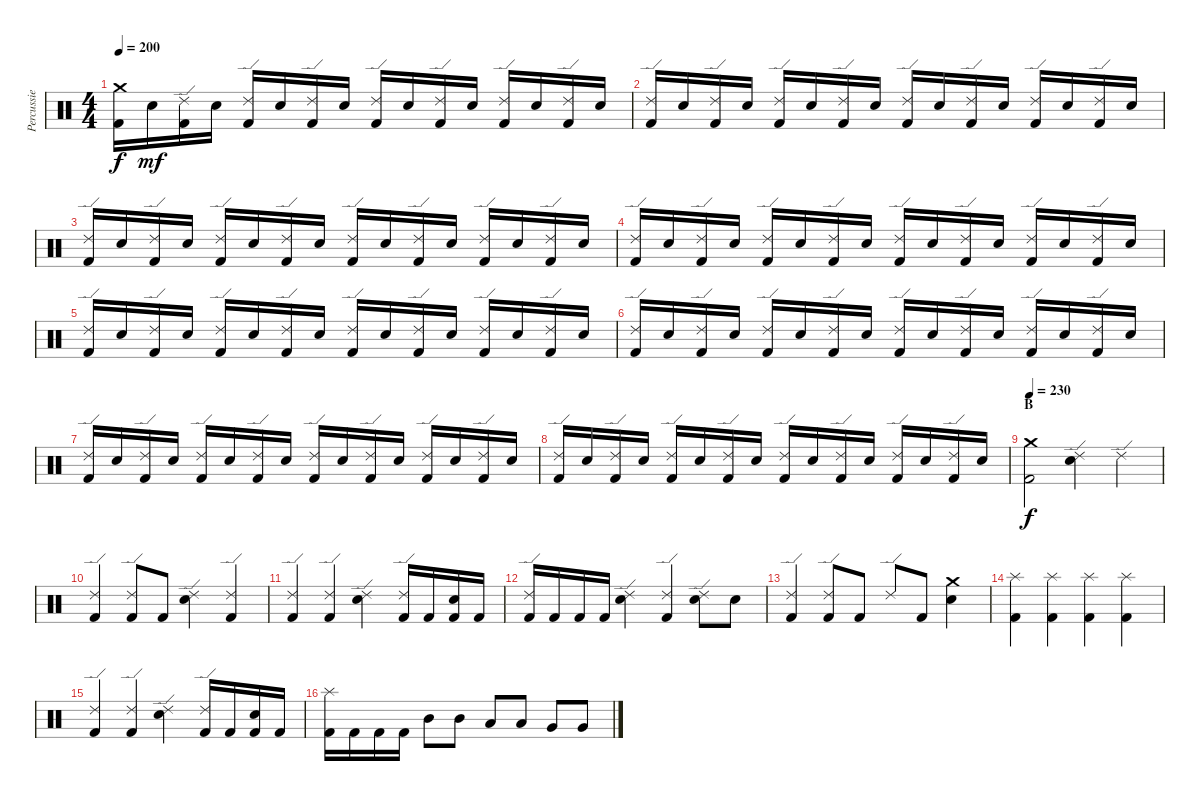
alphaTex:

\track ("Percussie" "Percussie") {instrument percussion}
\staff {score}
\articulation defaults
\ts (4 4)
\tempo 200
\clef neutral
\ks c
("Crash medium (hit)" "Kick (hit) 2").16{dy f} "Electric Snare (hit)".16{dy mf} ("Ride (edge) 2" "Kick (hit) 2").16 "Electric Snare (hit)".16 ("Ride (edge) 2" "Kick (hit) 2").16 "Electric Snare (hit)".16 ("Ride (edge) 2" "Kick (hit) 2").16 "Electric Snare (hit)".16 ("Ride (edge) 2" "Kick (hit) 2").16 "Electric Snare (hit)".16 ("Ride (edge) 2" "Kick (hit) 2").16 "Electric Snare (hit)".16 ("Ride (edge) 2" "Kick (hit) 2").16 "Electric Snare (hit)".16 ("Ride (edge) 2" "Kick (hit) 2").16 "Electric Snare (hit)".16 |
("Ride (edge) 2" "Kick (hit) 2").16 "Electric Snare (hit)".16 ("Ride (edge) 2" "Kick (hit) 2").16 "Electric Snare (hit)".16 ("Ride (edge) 2" "Kick (hit) 2").16 "Electric Snare (hit)".16 ("Ride (edge) 2" "Kick (hit) 2").16 "Electric Snare (hit)".16 ("Ride (edge) 2" "Kick (hit) 2").16 "Electric Snare (hit)".16 ("Ride (edge) 2" "Kick (hit) 2").16 "Electric Snare (hit)".16 ("Ride (edge) 2" "Kick (hit) 2").16 "Electric Snare (hit)".16 ("Ride (edge) 2" "Kick (hit) 2").16 "Electric Snare (hit)".16 |
("Ride (edge) 2" "Kick (hit) 2").16 "Electric Snare (hit)".16 ("Ride (edge) 2" "Kick (hit) 2").16 "Electric Snare (hit)".16 ("Ride (edge) 2" "Kick (hit) 2").16 "Electric Snare (hit)".16 ("Ride (edge) 2" "Kick (hit) 2").16 "Electric Snare (hit)".16 ("Ride (edge) 2" "Kick (hit) 2").16 "Electric Snare (hit)".16 ("Ride (edge) 2" "Kick (hit) 2").16 "Electric Snare (hit)".16 ("Ride (edge) 2" "Kick (hit) 2").16 "Electric Snare (hit)".16 ("Ride (edge) 2" "Kick (hit) 2").16 "Electric Snare (hit)".16 |
("Ride (edge) 2" "Kick (hit) 2").16 "Electric Snare (hit)".16 ("Ride (edge) 2" "Kick (hit) 2").16 "Electric Snare (hit)".16 ("Ride (edge) 2" "Kick (hit) 2").16 "Electric Snare (hit)".16 ("Ride (edge) 2" "Kick (hit) 2").16 "Electric Snare (hit)".16 ("Ride (edge) 2" "Kick (hit) 2").16 "Electric Snare (hit)".16 ("Ride (edge) 2" "Kick (hit) 2").16 "Electric Snare (hit)".16 ("Ride (edge) 2" "Kick (hit) 2").16 "Electric Snare (hit)".16 ("Ride (edge) 2" "Kick (hit) 2").16 "Electric Snare (hit)".16 |
("Ride (edge) 2" "Kick (hit) 2").16 "Electric Snare (hit)".16 ("Ride (edge) 2" "Kick (hit) 2").16 "Electric Snare (hit)".16 ("Ride (edge) 2" "Kick (hit) 2").16 "Electric Snare (hit)".16 ("Ride (edge) 2" "Kick (hit) 2").16 "Electric Snare (hit)".16 ("Ride (edge) 2" "Kick (hit) 2").16 "Electric Snare (hit)".16 ("Ride (edge) 2" "Kick (hit) 2").16 "Electric Snare (hit)".16 ("Ride (edge) 2" "Kick (hit) 2").16 "Electric Snare (hit)".16 ("Ride (edge) 2" "Kick (hit) 2").16 "Electric Snare (hit)".16 |
("Ride (edge) 2" "Kick (hit) 2").16 "Electric Snare (hit)".16 ("Ride (edge) 2" "Kick (hit) 2").16 "Electric Snare (hit)".16 ("Ride (edge) 2" "Kick (hit) 2").16 "Electric Snare (hit)".16 ("Ride (edge) 2" "Kick (hit) 2").16 "Electric Snare (hit)".16 ("Ride (edge) 2" "Kick (hit) 2").16 "Electric Snare (hit)".16 ("Ride (edge) 2" "Kick (hit) 2").16 "Electric Snare (hit)".16 ("Ride (edge) 2" "Kick (hit) 2").16 "Electric Snare (hit)".16 ("Ride (edge) 2" "Kick (hit) 2").16 "Electric Snare (hit)".16 |
("Ride (edge) 2" "Kick (hit) 2").16 "Electric Snare (hit)".16 ("Ride (edge) 2" "Kick (hit) 2").16 "Electric Snare (hit)".16 ("Ride (edge) 2" "Kick (hit) 2").16 "Electric Snare (hit)".16 ("Ride (edge) 2" "Kick (hit) 2").16 "Electric Snare (hit)".16 ("Ride (edge) 2" "Kick (hit) 2").16 "Electric Snare (hit)".16 ("Ride (edge) 2" "Kick (hit) 2").16 "Electric Snare (hit)".16 ("Ride (edge) 2" "Kick (hit) 2").16 "Electric Snare (hit)".16 ("Ride (edge) 2" "Kick (hit) 2").16 "Electric Snare (hit)".16 |
("Ride (edge) 2" "Kick (hit) 2").16 "Electric Snare (hit)".16 ("Ride (edge) 2" "Kick (hit) 2").16 "Electric Snare (hit)".16 ("Ride (edge) 2" "Kick (hit) 2").16 "Electric Snare (hit)".16 ("Ride (edge) 2" "Kick (hit) 2").16 "Electric Snare (hit)".16 ("Ride (edge) 2" "Kick (hit) 2").16 "Electric Snare (hit)".16 ("Ride (edge) 2" "Kick (hit) 2").16 "Electric Snare (hit)".16 ("Ride (edge) 2" "Kick (hit) 2").16 "Electric Snare (hit)".16 ("Ride (edge) 2" "Kick (hit) 2").16 "Electric Snare (hit)".16 |
\section ("" "B")
\tempo 230
("Crash medium (hit)" "Kick (hit) 2").2{dy f} ("Ride (edge) 2" "Electric Snare (hit)").4 "Ride (edge) 2".4 |
("Ride (edge) 2" "Kick (hit) 2").4 ("Ride (edge) 2" "Kick (hit) 2").8 "Kick (hit) 2".8 ("Ride (edge) 2" "Electric Snare (hit)").4 ("Ride (edge) 2" "Kick (hit) 2").4 |
("Ride (edge) 2" "Kick (hit) 2").4 ("Ride (edge) 2" "Kick (hit) 2").4 ("Ride (edge) 2" "Electric Snare (hit)").4 ("Ride (edge) 2" "Kick (hit) 2").16 "Kick (hit) 2".16 ("Electric Snare (hit)" "Kick (hit) 2").16 "Kick (hit) 2".16 |
("Ride (edge) 2" "Kick (hit) 2").16 "Kick (hit) 2".16 "Kick (hit) 2".16 "Kick (hit) 2".16 ("Ride (edge) 2" "Electric Snare (hit)").4 ("Ride (edge) 2" "Kick (hit) 2").4 ("Ride (edge) 2" "Electric Snare (hit)").8 "Electric Snare (hit)".8 |
("Ride (edge) 2" "Kick (hit) 2").4 ("Ride (edge) 2" "Kick (hit) 2").8 "Kick (hit) 2".8 "Ride (edge) 2".8 "Kick (hit) 2".8 ("Crash medium (hit)" "Electric Snare (hit)").4 |
("Splash (hit)" "Kick (hit) 2").4 ("Splash (hit)" "Kick (hit) 2").4 ("Splash (hit)" "Kick (hit) 2").4 ("Splash (hit)" "Kick (hit) 2").4 |
("Ride (edge) 2" "Kick (hit) 2").4 ("Ride (edge) 2" "Kick (hit) 2").4 ("Ride (edge) 2" "Electric Snare (hit)").4 ("Ride (edge) 2" "Kick (hit) 2").16 "Kick (hit) 2".16 ("Electric Snare (hit)" "Kick (hit) 2").16 "Kick (hit) 2".16 |
("Splash (hit)" "Kick (hit) 2").16 "Kick (hit) 2".16 "Kick (hit) 2".16 "Kick (hit) 2".16 "Mid Tom (hit)".8 "Mid Tom (hit)".8 "Low Tom (hit)".8 "Low Tom (hit)".8 "Very Low Tom (hit)".8 "Very Low Tom (hit)".8
